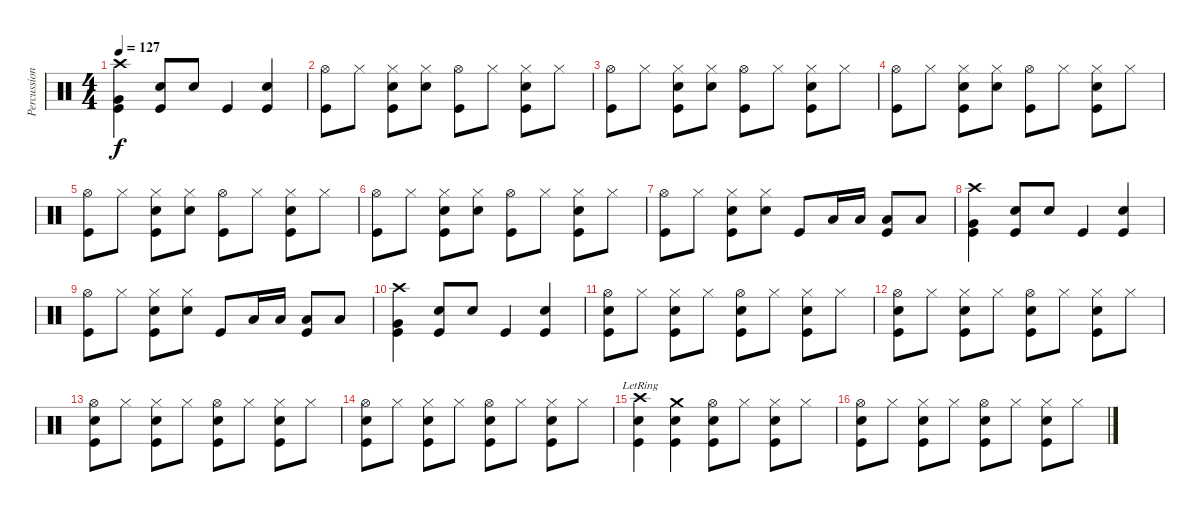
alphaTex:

\track ("Percussion" "Percussion") {instrument percussion}
\staff {score}
\articulation defaults
\ts (4 4)
\tempo 127
\clef neutral
\ks c
("Crash high (hit)" "Very Low Tom (hit)" "Kick (hit)").4{dy f} ("Snare (hit) 2" "Kick (hit)").8 "Snare (hit) 2".8 "Kick (hit)".4 ("Snare (hit) 2" "Kick (hit)").4 |
("Hi-Hat (open)" "Kick (hit)").8 "Hi-Hat (closed)".8 ("Hi-Hat (closed)" "Snare (hit) 2" "Kick (hit)").8 ("Hi-Hat (closed)" "Snare (hit) 2").8 ("Hi-Hat (open)" "Kick (hit)").8 "Hi-Hat (closed)".8 ("Hi-Hat (closed)" "Snare (hit) 2" "Kick (hit)").8 "Hi-Hat (closed)".8 |
("Hi-Hat (open)" "Kick (hit)").8 "Hi-Hat (closed)".8 ("Hi-Hat (closed)" "Snare (hit) 2" "Kick (hit)").8 ("Hi-Hat (closed)" "Snare (hit) 2").8 ("Hi-Hat (open)" "Kick (hit)").8 "Hi-Hat (closed)".8 ("Hi-Hat (closed)" "Snare (hit) 2" "Kick (hit)").8 "Hi-Hat (closed)".8 |
("Hi-Hat (open)" "Kick (hit)").8 "Hi-Hat (closed)".8 ("Hi-Hat (closed)" "Snare (hit) 2" "Kick (hit)").8 ("Hi-Hat (closed)" "Snare (hit) 2").8 ("Hi-Hat (open)" "Kick (hit)").8 "Hi-Hat (closed)".8 ("Hi-Hat (closed)" "Snare (hit) 2" "Kick (hit)").8 "Hi-Hat (closed)".8 |
("Hi-Hat (open)" "Kick (hit)").8 "Hi-Hat (closed)".8 ("Hi-Hat (closed)" "Snare (hit) 2" "Kick (hit)").8 ("Hi-Hat (closed)" "Snare (hit) 2").8 ("Hi-Hat (open)" "Kick (hit)").8 "Hi-Hat (closed)".8 ("Hi-Hat (closed)" "Snare (hit) 2" "Kick (hit)").8 "Hi-Hat (closed)".8 |
("Hi-Hat (open)" "Kick (hit)").8 "Hi-Hat (closed)".8 ("Hi-Hat (closed)" "Snare (hit) 2" "Kick (hit)").8 ("Hi-Hat (closed)" "Snare (hit) 2").8 ("Hi-Hat (open)" "Kick (hit)").8 "Hi-Hat (closed)".8 ("Hi-Hat (closed)" "Snare (hit) 2" "Kick (hit)").8 "Hi-Hat (closed)".8 |
("Hi-Hat (open)" "Kick (hit)").8 "Hi-Hat (closed)".8 ("Hi-Hat (closed)" "Snare (hit) 2" "Kick (hit)").8 ("Hi-Hat (closed)" "Snare (hit) 2").8 "Kick (hit)".8 "Low Floor Tom (hit)".16 "Low Floor Tom (hit)".16 ("Low Floor Tom (hit)" "Kick (hit)").8 "Low Floor Tom (hit)".8 |
("Crash high (hit)" "Very Low Tom (hit)" "Kick (hit)").4 ("Snare (hit) 2" "Kick (hit)").8 "Snare (hit) 2".8 "Kick (hit)".4 ("Snare (hit) 2" "Kick (hit)").4 |
("Hi-Hat (open)" "Kick (hit)").8 "Hi-Hat (closed)".8 ("Hi-Hat (closed)" "Snare (hit) 2" "Kick (hit)").8 ("Hi-Hat (closed)" "Snare (hit) 2").8 "Kick (hit)".8 "Low Floor Tom (hit)".16 "Low Floor Tom (hit)".16 ("Low Floor Tom (hit)" "Kick (hit)").8 "Low Floor Tom (hit)".8 |
("Crash high (hit)" "Very Low Tom (hit)" "Kick (hit)").4 ("Snare (hit) 2" "Kick (hit)").8 "Snare (hit) 2".8 "Kick (hit)".4 ("Snare (hit) 2" "Kick (hit)").4 |
("Hi-Hat (open)" "Snare (hit) 2" "Kick (hit)").8 "Hi-Hat (closed)".8 ("Hi-Hat (closed)" "Snare (hit) 2" "Kick (hit)").8 "Hi-Hat (closed)".8 ("Hi-Hat (open)" "Snare (hit) 2" "Kick (hit)").8 "Hi-Hat (closed)".8 ("Hi-Hat (closed)" "Snare (hit) 2" "Kick (hit)").8 "Hi-Hat (closed)".8 |
("Hi-Hat (open)" "Snare (hit) 2" "Kick (hit)").8 "Hi-Hat (closed)".8 ("Hi-Hat (closed)" "Snare (hit) 2" "Kick (hit)").8 "Hi-Hat (closed)".8 ("Hi-Hat (open)" "Snare (hit) 2" "Kick (hit)").8 "Hi-Hat (closed)".8 ("Hi-Hat (closed)" "Snare (hit) 2" "Kick (hit)").8 "Hi-Hat (closed)".8 |
("Hi-Hat (open)" "Snare (hit) 2" "Kick (hit)").8 "Hi-Hat (closed)".8 ("Hi-Hat (closed)" "Snare (hit) 2" "Kick (hit)").8 "Hi-Hat (closed)".8 ("Hi-Hat (open)" "Snare (hit) 2" "Kick (hit)").8 "Hi-Hat (closed)".8 ("Hi-Hat (closed)" "Snare (hit) 2" "Kick (hit)").8 "Hi-Hat (closed)".8 |
("Hi-Hat (open)" "Snare (hit) 2" "Kick (hit)").8 "Hi-Hat (closed)".8 ("Hi-Hat (closed)" "Snare (hit) 2" "Kick (hit)").8 "Hi-Hat (closed)".8 ("Hi-Hat (open)" "Snare (hit) 2" "Kick (hit)").8 "Hi-Hat (closed)".8 ("Hi-Hat (closed)" "Snare (hit) 2" "Kick (hit)").8 "Hi-Hat (closed)".8 |
("Crash high (hit)"{lr} "Snare (hit) 2" "Kick (hit)").4 ("Crash medium (hit)" "Snare (hit) 2" "Kick (hit)").4 ("Hi-Hat (open)" "Snare (hit) 2" "Kick (hit)").8 "Hi-Hat (closed)".8 ("Hi-Hat (closed)" "Snare (hit) 2" "Kick (hit)").8 "Hi-Hat (closed)".8 |
("Hi-Hat (open)" "Snare (hit) 2" "Kick (hit)").8 "Hi-Hat (closed)".8 ("Hi-Hat (closed)" "Snare (hit) 2" "Kick (hit)").8 "Hi-Hat (closed)".8 ("Hi-Hat (open)" "Snare (hit) 2" "Kick (hit)").8 "Hi-Hat (closed)".8 ("Hi-Hat (closed)" "Snare (hit) 2" "Kick (hit)").8 "Hi-Hat (closed)".8
